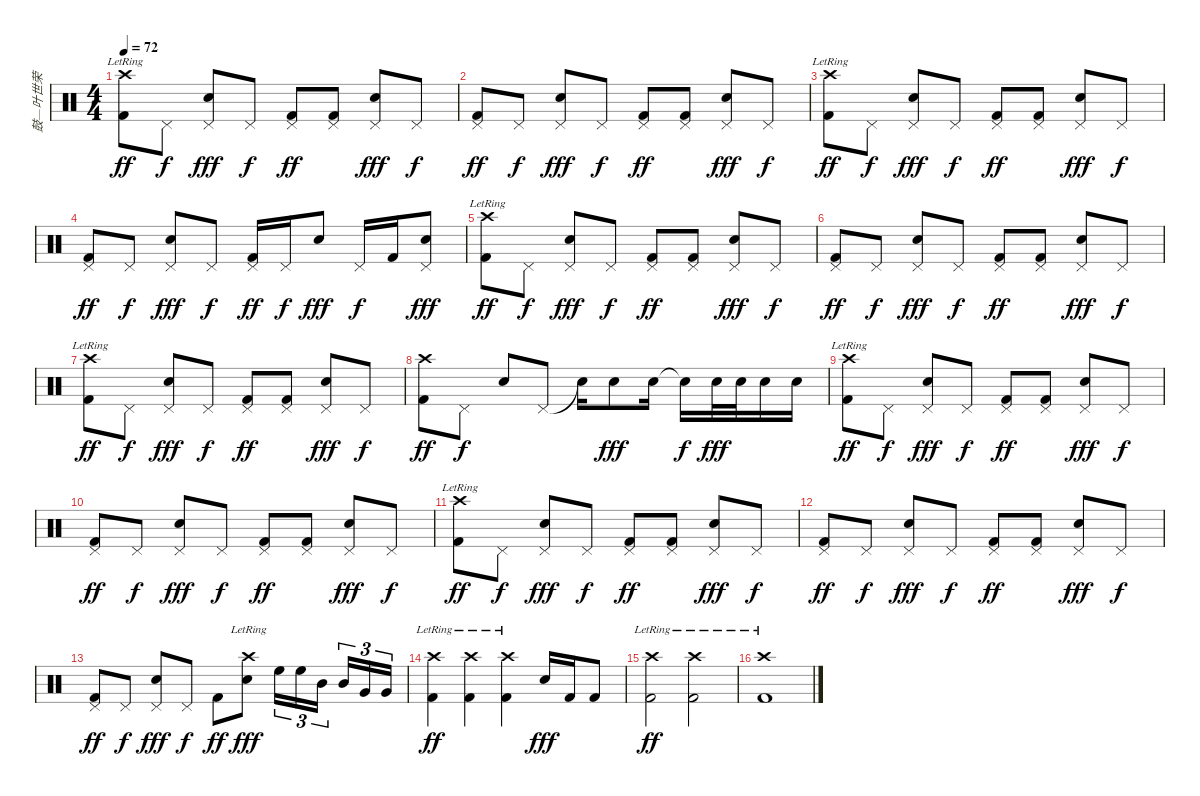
\track ("鼓—叶世荣" "鼓—叶世荣") {instrument percussion}
\staff {score}
\articulation defaults
\ts (4 4)
\tempo 72
\clef neutral
\ks c
("Crash high (hit)"{lr} "Kick (hit) 2").8{dy ff} "Pedal Hi-Hat (hit)".8{dy f} ("Pedal Hi-Hat (hit)" "Electric Snare (hit)").8{dy fff} "Pedal Hi-Hat (hit)".8{dy f} ("Pedal Hi-Hat (hit)" "Kick (hit) 2").8{dy ff} ("Pedal Hi-Hat (hit)" "Kick (hit) 2").8 ("Pedal Hi-Hat (hit)" "Electric Snare (hit)").8{dy fff} "Pedal Hi-Hat (hit)".8{dy f} |
("Pedal Hi-Hat (hit)" "Kick (hit) 2").8{dy ff} "Pedal Hi-Hat (hit)".8{dy f} ("Pedal Hi-Hat (hit)" "Electric Snare (hit)").8{dy fff} "Pedal Hi-Hat (hit)".8{dy f} ("Pedal Hi-Hat (hit)" "Kick (hit) 2").8{dy ff} ("Pedal Hi-Hat (hit)" "Kick (hit) 2").8 ("Pedal Hi-Hat (hit)" "Electric Snare (hit)").8{dy fff} "Pedal Hi-Hat (hit)".8{dy f} |
("Crash high (hit)"{lr} "Kick (hit) 2").8{dy ff} "Pedal Hi-Hat (hit)".8{dy f} ("Pedal Hi-Hat (hit)" "Electric Snare (hit)").8{dy fff} "Pedal Hi-Hat (hit)".8{dy f} ("Pedal Hi-Hat (hit)" "Kick (hit) 2").8{dy ff} ("Pedal Hi-Hat (hit)" "Kick (hit) 2").8 ("Pedal Hi-Hat (hit)" "Electric Snare (hit)").8{dy fff} "Pedal Hi-Hat (hit)".8{dy f} |
("Pedal Hi-Hat (hit)" "Kick (hit) 2").8{dy ff} "Pedal Hi-Hat (hit)".8{dy f} ("Pedal Hi-Hat (hit)" "Electric Snare (hit)").8{dy fff} "Pedal Hi-Hat (hit)".8{dy f} ("Pedal Hi-Hat (hit)" "Kick (hit) 2").16{dy ff} "Pedal Hi-Hat (hit)".16{dy f} "Electric Snare (hit)".8{dy fff} "Pedal Hi-Hat (hit)".16{dy f} "Kick (hit) 2".16 ("Pedal Hi-Hat (hit)" "Electric Snare (hit)").8{dy fff} |
("Crash high (hit)"{lr} "Kick (hit) 2").8{dy ff} "Pedal Hi-Hat (hit)".8{dy f} ("Pedal Hi-Hat (hit)" "Electric Snare (hit)").8{dy fff} "Pedal Hi-Hat (hit)".8{dy f} ("Pedal Hi-Hat (hit)" "Kick (hit) 2").8{dy ff} ("Pedal Hi-Hat (hit)" "Kick (hit) 2").8 ("Pedal Hi-Hat (hit)" "Electric Snare (hit)").8{dy fff} "Pedal Hi-Hat (hit)".8{dy f} |
("Pedal Hi-Hat (hit)" "Kick (hit) 2").8{dy ff} "Pedal Hi-Hat (hit)".8{dy f} ("Pedal Hi-Hat (hit)" "Electric Snare (hit)").8{dy fff} "Pedal Hi-Hat (hit)".8{dy f} ("Pedal Hi-Hat (hit)" "Kick (hit) 2").8{dy ff} ("Pedal Hi-Hat (hit)" "Kick (hit) 2").8 ("Pedal Hi-Hat (hit)" "Electric Snare (hit)").8{dy fff} "Pedal Hi-Hat (hit)".8{dy f} |
("Crash high (hit)"{lr} "Kick (hit) 2").8{dy ff} "Pedal Hi-Hat (hit)".8{dy f} ("Pedal Hi-Hat (hit)" "Electric Snare (hit)").8{dy fff} "Pedal Hi-Hat (hit)".8{dy f} ("Pedal Hi-Hat (hit)" "Kick (hit) 2").8{dy ff} ("Pedal Hi-Hat (hit)" "Kick (hit) 2").8 ("Pedal Hi-Hat (hit)" "Electric Snare (hit)").8{dy fff} "Pedal Hi-Hat (hit)".8{dy f} |
("Crash high (hit)" "Kick (hit) 2").8{dy ff} "Pedal Hi-Hat (hit)".8{dy f} "Electric Snare (hit)".8 "Pedal Hi-Hat (hit)".8 "Snare (hit)"{t}.16 "Electric Snare (hit)".8{dy fff} "Electric Snare (hit)".16 "Snare (hit)"{t}.16{dy f} "Electric Snare (hit)".32{dy fff} "Electric Snare (hit)".32 "Electric Snare (hit)".16 "Electric Snare (hit)".16 |
("Crash high (hit)"{lr} "Kick (hit) 2").8{dy ff} "Pedal Hi-Hat (hit)".8{dy f} ("Pedal Hi-Hat (hit)" "Electric Snare (hit)").8{dy fff} "Pedal Hi-Hat (hit)".8{dy f} ("Pedal Hi-Hat (hit)" "Kick (hit) 2").8{dy ff} ("Pedal Hi-Hat (hit)" "Kick (hit) 2").8 ("Pedal Hi-Hat (hit)" "Electric Snare (hit)").8{dy fff} "Pedal Hi-Hat (hit)".8{dy f} |
("Pedal Hi-Hat (hit)" "Kick (hit) 2").8{dy ff} "Pedal Hi-Hat (hit)".8{dy f} ("Pedal Hi-Hat (hit)" "Electric Snare (hit)").8{dy fff} "Pedal Hi-Hat (hit)".8{dy f} ("Pedal Hi-Hat (hit)" "Kick (hit) 2").8{dy ff} ("Pedal Hi-Hat (hit)" "Kick (hit) 2").8 ("Pedal Hi-Hat (hit)" "Electric Snare (hit)").8{dy fff} "Pedal Hi-Hat (hit)".8{dy f} |
("Crash high (hit)"{lr} "Kick (hit) 2").8{dy ff} "Pedal Hi-Hat (hit)".8{dy f} ("Pedal Hi-Hat (hit)" "Electric Snare (hit)").8{dy fff} "Pedal Hi-Hat (hit)".8{dy f} ("Pedal Hi-Hat (hit)" "Kick (hit) 2").8{dy ff} ("Pedal Hi-Hat (hit)" "Kick (hit) 2").8 ("Pedal Hi-Hat (hit)" "Electric Snare (hit)").8{dy fff} "Pedal Hi-Hat (hit)".8{dy f} |
("Pedal Hi-Hat (hit)" "Kick (hit) 2").8{dy ff} "Pedal Hi-Hat (hit)".8{dy f} ("Pedal Hi-Hat (hit)" "Electric Snare (hit)").8{dy fff} "Pedal Hi-Hat (hit)".8{dy f} ("Pedal Hi-Hat (hit)" "Kick (hit) 2").8{dy ff} ("Pedal Hi-Hat (hit)" "Kick (hit) 2").8 ("Pedal Hi-Hat (hit)" "Electric Snare (hit)").8{dy fff} "Pedal Hi-Hat (hit)".8{dy f} |
("Pedal Hi-Hat (hit)" "Kick (hit) 2").8{dy ff} "Pedal Hi-Hat (hit)".8{dy f} ("Pedal Hi-Hat (hit)" "Electric Snare (hit)").8{dy fff} "Pedal Hi-Hat (hit)".8{dy f} "Kick (hit) 2".8{dy ff} ("Crash high (hit)"{lr} "Electric Snare (hit)").8{dy fff} "High Floor Tom (hit)".16{tu (3 2)} "High Floor Tom (hit)".16{tu (3 2)} "Mid Tom (hit)".16{tu (3 2)} "Mid Tom (hit)".16{tu (3 2)} "Very Low Tom (hit)".16{tu (3 2)} "Very Low Tom (hit)".16{tu (3 2)} |
("Crash high (hit)"{lr} "Kick (hit) 2").4{dy ff} ("Crash high (hit)"{lr} "Kick (hit) 2").4 ("Crash high (hit)"{lr} "Kick (hit) 2").4 "Electric Snare (hit)".16{dy fff} "Kick (hit) 2".16 "Kick (hit) 2".8 |
("Crash high (hit)"{lr} "Kick (hit) 2").2{dy ff} ("Crash high (hit)"{lr} "Kick (hit) 2").2 |
("Crash high (hit)"{lr} "Kick (hit) 2").1
